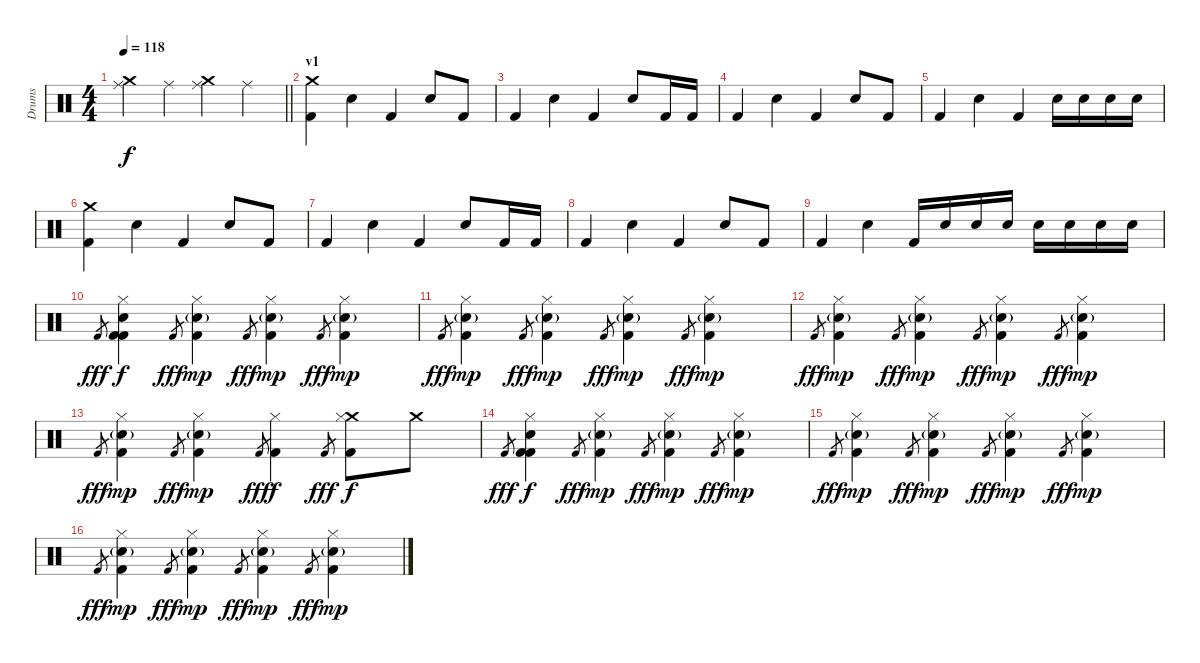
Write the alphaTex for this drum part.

\track ("Drums" "Drums") {instrument percussion}
\staff {score}
\articulation defaults
\ts (4 4)
\tempo 118
\clef neutral
\barLineRight lightlight
\ks c
("Crash medium (hit)" "Ride (middle)").4{dy f} "Ride (middle)".4 ("Ride (middle)" "Crash medium (hit)").4 "Ride (middle)".4 |
\section ("" "v1")
("Crash medium (hit)" "Kick (hit) 2").4 "Snare (hit) 2".4 "Kick (hit) 2".4 "Snare (hit) 2".8 "Kick (hit) 2".8 |
"Kick (hit) 2".4 "Snare (hit) 2".4 "Kick (hit) 2".4 "Snare (hit) 2".8 "Kick (hit) 2".16 "Kick (hit) 2".16 |
"Kick (hit) 2".4 "Snare (hit) 2".4 "Kick (hit) 2".4 "Snare (hit) 2".8 "Kick (hit) 2".8 |
"Kick (hit) 2".4 "Snare (hit) 2".4 "Kick (hit) 2".4 "Snare (hit) 2".16 "Snare (hit) 2".16 "Snare (hit) 2".16 "Snare (hit) 2".16 |
("Crash medium (hit)" "Kick (hit) 2").4 "Snare (hit) 2".4 "Kick (hit) 2".4 "Snare (hit) 2".8 "Kick (hit) 2".8 |
"Kick (hit) 2".4 "Snare (hit) 2".4 "Kick (hit) 2".4 "Snare (hit) 2".8 "Kick (hit) 2".16 "Kick (hit) 2".16 |
"Kick (hit) 2".4 "Snare (hit) 2".4 "Kick (hit) 2".4 "Snare (hit) 2".8 "Kick (hit) 2".8 |
"Kick (hit) 2".4 "Snare (hit) 2".4 "Kick (hit) 2".16 "Snare (hit) 2".16 "Snare (hit) 2".16 "Snare (hit) 2".16 "Snare (hit) 2".16 "Snare (hit) 2".16 "Snare (hit) 2".16 "Snare (hit) 2".16 |
"Kick (hit) 2"{h x}.8{gr dy fff} ("Kick (hit) 2" "Snare (hit) 2" "Kick (hit) 2" "Hi-Hat (closed)").4{dy f} "Kick (hit) 2"{h x}.8{gr dy fff} ("Kick (hit) 2" "Snare (hit) 2"{g} "Hi-Hat (closed)").4{dy mp} "Kick (hit) 2"{h x}.8{gr dy fff} ("Kick (hit) 2" "Snare (hit) 2"{g} "Hi-Hat (closed)").4{dy mp} "Kick (hit) 2"{h x}.8{gr dy fff} ("Kick (hit) 2" "Snare (hit) 2"{g} "Hi-Hat (closed)").4{dy mp} |
"Kick (hit) 2"{h x}.8{gr dy fff} ("Kick (hit) 2" "Snare (hit) 2"{g} "Hi-Hat (closed)").4{dy mp} "Kick (hit) 2"{h x}.8{gr dy fff} ("Kick (hit) 2" "Snare (hit) 2"{g} "Hi-Hat (closed)").4{dy mp} "Kick (hit) 2"{h x}.8{gr dy fff} ("Kick (hit) 2" "Snare (hit) 2"{g} "Hi-Hat (closed)").4{dy mp} "Kick (hit) 2"{h x}.8{gr dy fff} ("Kick (hit) 2" "Snare (hit) 2"{g} "Hi-Hat (closed)").4{dy mp} |
"Kick (hit) 2"{h x}.8{gr dy fff} ("Kick (hit) 2" "Snare (hit) 2"{g} "Hi-Hat (closed)").4{dy mp} "Kick (hit) 2"{h x}.8{gr dy fff} ("Kick (hit) 2" "Snare (hit) 2"{g} "Hi-Hat (closed)").4{dy mp} "Kick (hit) 2"{h x}.8{gr dy fff} ("Kick (hit) 2" "Snare (hit) 2"{g} "Hi-Hat (closed)").4{dy mp} "Kick (hit) 2"{h x}.8{gr dy fff} ("Kick (hit) 2" "Snare (hit) 2"{g} "Hi-Hat (closed)").4{dy mp} |
"Kick (hit) 2"{h x}.8{gr dy fff} ("Kick (hit) 2" "Snare (hit) 2"{g} "Hi-Hat (closed)").4{dy mp} "Kick (hit) 2"{h x}.8{gr dy fff} ("Kick (hit) 2" "Snare (hit) 2"{g} "Hi-Hat (closed)").4{dy mp} "Kick (hit) 2"{h x}.8{gr dy fff} ("Kick (hit) 2" "Hi-Hat (closed)").4{dy f} "Kick (hit) 2"{h x}.8{gr dy fff} ("Kick (hit) 2" "Crash medium (hit)" "Hi-Hat (closed)").8{dy f} "Crash medium (hit)".8 |
"Kick (hit) 2"{h x}.8{gr dy fff} ("Kick (hit) 2" "Snare (hit) 2" "Kick (hit) 2" "Hi-Hat (closed)").4{dy f} "Kick (hit) 2"{h x}.8{gr dy fff} ("Kick (hit) 2" "Snare (hit) 2"{g} "Hi-Hat (closed)").4{dy mp} "Kick (hit) 2"{h x}.8{gr dy fff} ("Kick (hit) 2" "Snare (hit) 2"{g} "Hi-Hat (closed)").4{dy mp} "Kick (hit) 2"{h x}.8{gr dy fff} ("Kick (hit) 2" "Snare (hit) 2"{g} "Hi-Hat (closed)").4{dy mp} |
"Kick (hit) 2"{h x}.8{gr dy fff} ("Kick (hit) 2" "Snare (hit) 2"{g} "Hi-Hat (closed)").4{dy mp} "Kick (hit) 2"{h x}.8{gr dy fff} ("Kick (hit) 2" "Snare (hit) 2"{g} "Hi-Hat (closed)").4{dy mp} "Kick (hit) 2"{h x}.8{gr dy fff} ("Kick (hit) 2" "Snare (hit) 2"{g} "Hi-Hat (closed)").4{dy mp} "Kick (hit) 2"{h x}.8{gr dy fff} ("Kick (hit) 2" "Snare (hit) 2"{g} "Hi-Hat (closed)").4{dy mp} |
"Kick (hit) 2"{h x}.8{gr dy fff} ("Kick (hit) 2" "Snare (hit) 2"{g} "Hi-Hat (closed)").4{dy mp} "Kick (hit) 2"{h x}.8{gr dy fff} ("Kick (hit) 2" "Snare (hit) 2"{g} "Hi-Hat (closed)").4{dy mp} "Kick (hit) 2"{h x}.8{gr dy fff} ("Kick (hit) 2" "Snare (hit) 2"{g} "Hi-Hat (closed)").4{dy mp} "Kick (hit) 2"{h x}.8{gr dy fff} ("Kick (hit) 2" "Snare (hit) 2"{g} "Hi-Hat (closed)").4{dy mp}
